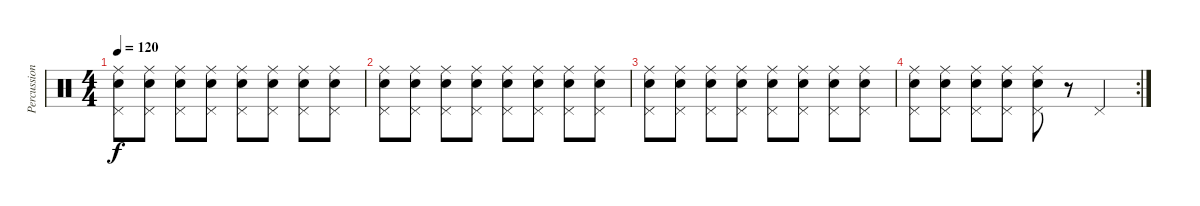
\track ("Percussion" "Percussion") {instrument percussion}
\staff {score}
\articulation defaults
\ts (4 4)
\tempo 120
\clef neutral
\ks c
("Ride (middle)" "Pedal Hi-Hat (hit)" "Snare (hit) 2").8{dy f} ("Ride (middle)" "Pedal Hi-Hat (hit)" "Snare (hit) 2").8 ("Ride (middle)" "Pedal Hi-Hat (hit)" "Snare (hit) 2").8 ("Ride (middle)" "Pedal Hi-Hat (hit)" "Snare (hit) 2").8 ("Ride (middle)" "Pedal Hi-Hat (hit)" "Snare (hit) 2").8 ("Ride (middle)" "Pedal Hi-Hat (hit)" "Snare (hit) 2").8 ("Ride (middle)" "Pedal Hi-Hat (hit)" "Snare (hit) 2").8 ("Ride (middle)" "Pedal Hi-Hat (hit)" "Snare (hit) 2").8 |
("Ride (middle)" "Pedal Hi-Hat (hit)" "Snare (hit) 2").8 ("Ride (middle)" "Pedal Hi-Hat (hit)" "Snare (hit) 2").8 ("Ride (middle)" "Pedal Hi-Hat (hit)" "Snare (hit) 2").8 ("Ride (middle)" "Pedal Hi-Hat (hit)" "Snare (hit) 2").8 ("Ride (middle)" "Pedal Hi-Hat (hit)" "Snare (hit) 2").8 ("Ride (middle)" "Pedal Hi-Hat (hit)" "Snare (hit) 2").8 ("Ride (middle)" "Pedal Hi-Hat (hit)" "Snare (hit) 2").8 ("Ride (middle)" "Pedal Hi-Hat (hit)" "Snare (hit) 2").8 |
("Ride (middle)" "Pedal Hi-Hat (hit)" "Snare (hit) 2").8 ("Ride (middle)" "Pedal Hi-Hat (hit)" "Snare (hit) 2").8 ("Ride (middle)" "Pedal Hi-Hat (hit)" "Snare (hit) 2").8 ("Ride (middle)" "Pedal Hi-Hat (hit)" "Snare (hit) 2").8 ("Ride (middle)" "Pedal Hi-Hat (hit)" "Snare (hit) 2").8 ("Ride (middle)" "Pedal Hi-Hat (hit)" "Snare (hit) 2").8 ("Ride (middle)" "Pedal Hi-Hat (hit)" "Snare (hit) 2").8 ("Ride (middle)" "Pedal Hi-Hat (hit)" "Snare (hit) 2").8 |
\rc 2
("Ride (middle)" "Pedal Hi-Hat (hit)" "Snare (hit) 2").8 ("Ride (middle)" "Pedal Hi-Hat (hit)" "Snare (hit) 2").8 ("Ride (middle)" "Pedal Hi-Hat (hit)" "Snare (hit) 2").8 ("Ride (middle)" "Pedal Hi-Hat (hit)" "Snare (hit) 2").8 ("Ride (middle)" "Pedal Hi-Hat (hit)" "Snare (hit) 2").8 r.8 "Pedal Hi-Hat (hit)".4
